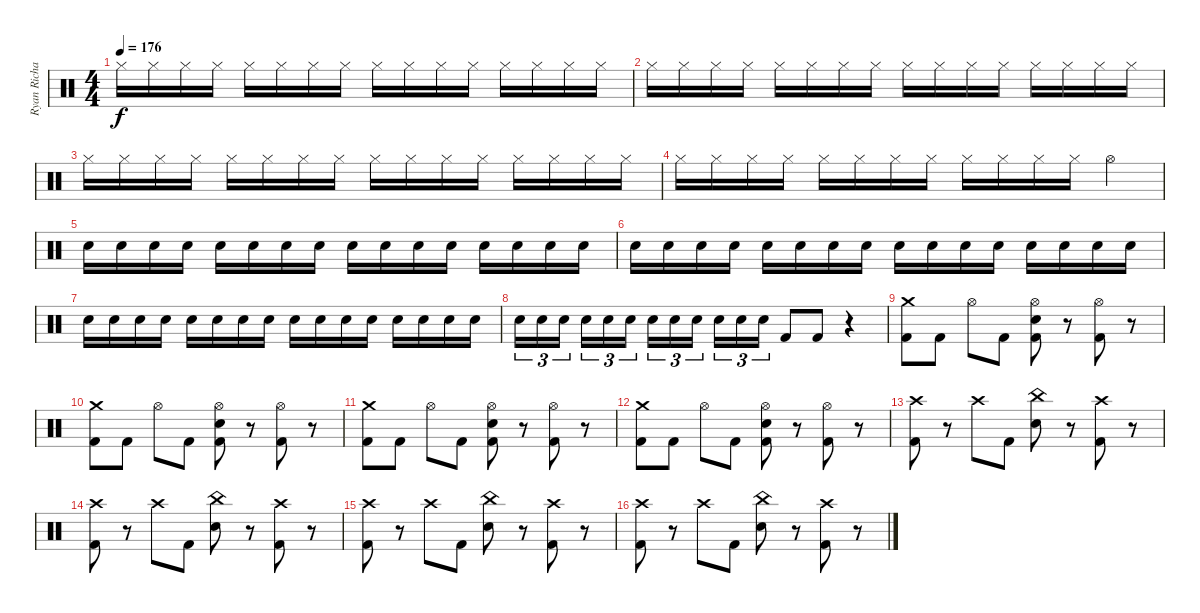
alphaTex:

\track ("Ryan Richards (drums)" "Ryan Richa") {instrument percussion}
\staff {score}
\articulation defaults
\ts (4 4)
\tempo 176
\clef neutral
\ks c "Hi-Hat (closed)".16{dy f} "Hi-Hat (closed)".16 "Hi-Hat (closed)".16 "Hi-Hat (closed)".16 "Hi-Hat (closed)".16 "Hi-Hat (closed)".16 "Hi-Hat (closed)".16 "Hi-Hat (closed)".16 "Hi-Hat (closed)".16 "Hi-Hat (closed)".16 "Hi-Hat (closed)".16 "Hi-Hat (closed)".16 "Hi-Hat (closed)".16 "Hi-Hat (closed)".16 "Hi-Hat (closed)".16 "Hi-Hat (closed)".16
|
"Hi-Hat (closed)".16 "Hi-Hat (closed)".16 "Hi-Hat (closed)".16 "Hi-Hat (closed)".16 "Hi-Hat (closed)".16 "Hi-Hat (closed)".16 "Hi-Hat (closed)".16 "Hi-Hat (closed)".16 "Hi-Hat (closed)".16 "Hi-Hat (closed)".16 "Hi-Hat (closed)".16 "Hi-Hat (closed)".16 "Hi-Hat (closed)".16 "Hi-Hat (closed)".16 "Hi-Hat (closed)".16 "Hi-Hat (closed)".16 |
"Hi-Hat (closed)".16 "Hi-Hat (closed)".16 "Hi-Hat (closed)".16 "Hi-Hat (closed)".16 "Hi-Hat (closed)".16 "Hi-Hat (closed)".16 "Hi-Hat (closed)".16 "Hi-Hat (closed)".16 "Hi-Hat (closed)".16 "Hi-Hat (closed)".16 "Hi-Hat (closed)".16 "Hi-Hat (closed)".16 "Hi-Hat (closed)".16 "Hi-Hat (closed)".16 "Hi-Hat (closed)".16 "Hi-Hat (closed)".16 |
"Hi-Hat (closed)".16 "Hi-Hat (closed)".16 "Hi-Hat (closed)".16 "Hi-Hat (closed)".16 "Hi-Hat (closed)".16 "Hi-Hat (closed)".16 "Hi-Hat (closed)".16 "Hi-Hat (closed)".16 "Hi-Hat (closed)".16 "Hi-Hat (closed)".16 "Hi-Hat (closed)".16 "Hi-Hat (closed)".16 "Hi-Hat (open)".4 |
"Electric Snare (hit)".16 "Electric Snare (hit)".16 "Electric Snare (hit)".16 "Electric Snare (hit)".16 "Electric Snare (hit)".16 "Electric Snare (hit)".16 "Electric Snare (hit)".16 "Electric Snare (hit)".16 "Electric Snare (hit)".16 "Electric Snare (hit)".16 "Electric Snare (hit)".16 "Electric Snare (hit)".16 "Electric Snare (hit)".16 "Electric Snare (hit)".16 "Electric Snare (hit)".16 "Electric Snare (hit)".16 |
"Electric Snare (hit)".16 "Electric Snare (hit)".16 "Electric Snare (hit)".16 "Electric Snare (hit)".16 "Electric Snare (hit)".16 "Electric Snare (hit)".16 "Electric Snare (hit)".16 "Electric Snare (hit)".16 "Electric Snare (hit)".16 "Electric Snare (hit)".16 "Electric Snare (hit)".16 "Electric Snare (hit)".16 "Electric Snare (hit)".16 "Electric Snare (hit)".16 "Electric Snare (hit)".16 "Electric Snare (hit)".16 |
"Electric Snare (hit)".16 "Electric Snare (hit)".16 "Electric Snare (hit)".16 "Electric Snare (hit)".16 "Electric Snare (hit)".16 "Electric Snare (hit)".16 "Electric Snare (hit)".16 "Electric Snare (hit)".16 "Electric Snare (hit)".16 "Electric Snare (hit)".16 "Electric Snare (hit)".16 "Electric Snare (hit)".16 "Electric Snare (hit)".16 "Electric Snare (hit)".16 "Electric Snare (hit)".16 "Electric Snare (hit)".16 |
"Electric Snare (hit)".16{tu (3 2)} "Electric Snare (hit)".16{tu (3 2)} "Electric Snare (hit)".16{tu (3 2)} "Electric Snare (hit)".16{tu (3 2)} "Electric Snare (hit)".16{tu (3 2)} "Electric Snare (hit)".16{tu (3 2)} "Electric Snare (hit)".16{tu (3 2)} "Electric Snare (hit)".16{tu (3 2)} "Electric Snare (hit)".16{tu (3 2)} "Electric Snare (hit)".16{tu (3 2)} "Electric Snare (hit)".16{tu (3 2)} "Electric Snare (hit)".16{tu (3 2)} "Kick (hit) 2".8 "Kick (hit) 2".8 r.4 |
("Crash medium (hit)" "Kick (hit) 2").8 "Kick (hit) 2".8 "Hi-Hat (open)".8 "Kick (hit) 2".8 ("Snare (hit) 2" "Hi-Hat (open)" "Kick (hit) 2").8 r.8 ("Hi-Hat (open)" "Kick (hit) 2").8 r.8 |
("Crash medium (hit)" "Kick (hit) 2").8 "Kick (hit) 2".8 "Hi-Hat (open)".8 "Kick (hit) 2".8 ("Snare (hit) 2" "Hi-Hat (open)" "Kick (hit) 2").8 r.8 ("Hi-Hat (open)" "Kick (hit) 2").8 r.8 |
("Crash medium (hit)" "Kick (hit) 2").8 "Kick (hit) 2".8 "Hi-Hat (open)".8 "Kick (hit) 2".8 ("Snare (hit) 2" "Hi-Hat (open)" "Kick (hit) 2").8 r.8 ("Hi-Hat (open)" "Kick (hit) 2").8 r.8 |
("Crash medium (hit)" "Kick (hit) 2").8 "Kick (hit) 2".8 "Hi-Hat (open)".8 "Kick (hit) 2".8 ("Snare (hit) 2" "Hi-Hat (open)" "Kick (hit) 2").8 r.8 ("Hi-Hat (open)" "Kick (hit) 2").8 r.8 |
("Crash high (hit)" "Kick (hit) 2").8 r.8 "Crash high (hit)".8 "Kick (hit) 2".8 ("Snare (hit) 2" "China (hit)").8 r.8 ("Crash high (hit)" "Kick (hit) 2").8 r.8 |
("Crash high (hit)" "Kick (hit) 2").8 r.8 "Crash high (hit)".8 "Kick (hit) 2".8 ("Snare (hit) 2" "China (hit)").8 r.8 ("Crash high (hit)" "Kick (hit) 2").8 r.8 |
("Crash high (hit)" "Kick (hit) 2").8 r.8 "Crash high (hit)".8 "Kick (hit) 2".8 ("Snare (hit) 2" "China (hit)").8 r.8 ("Crash high (hit)" "Kick (hit) 2").8 r.8 |
("Crash high (hit)" "Kick (hit) 2").8 r.8 "Crash high (hit)".8 "Kick (hit) 2".8 ("Snare (hit) 2" "China (hit)").8 r.8 ("Crash high (hit)" "Kick (hit) 2").8 r.8
